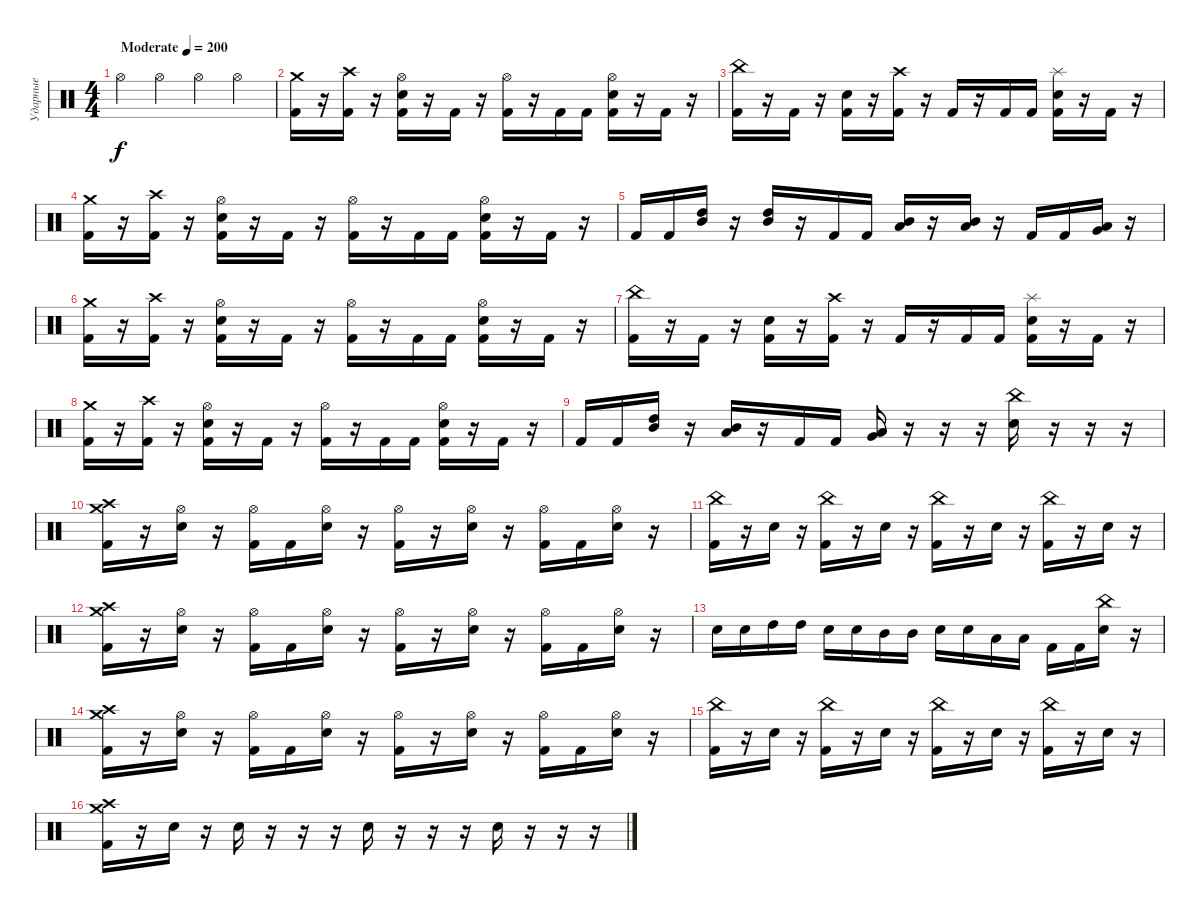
\track ("Ударные" "Ударные") {instrument percussion}
\staff {score}
\articulation defaults
\ts (4 4)
\tempo (200 "Moderate")
\clef neutral
\ks c "Hi-Hat (open)".4{dy f} "Hi-Hat (open)".4 "Hi-Hat (open)".4 "Hi-Hat (open)".4
|
("Kick (hit) 2" "Crash medium (hit)").16 r.16 ("Kick (hit) 2" "Crash high (hit)").16 r.16 ("Kick (hit) 2" "Electric Snare (hit)" "Hi-Hat (open)").16 r.16 "Kick (hit) 2".16 r.16 ("Kick (hit) 2" "Hi-Hat (open)").16 r.16 "Kick (hit) 2".16 "Kick (hit) 2".16 ("Kick (hit) 2" "Electric Snare (hit)" "Hi-Hat (open)").16 r.16 "Kick (hit) 2".16 r.16 |
("Kick (hit) 2" "China (hit)").16 r.16 "Kick (hit) 2".16 r.16 ("Kick (hit) 2" "Electric Snare (hit)").16 r.16 ("Kick (hit) 2" "Crash high (hit)").16 r.16 "Kick (hit) 2".16 r.16 "Kick (hit) 2".16 "Kick (hit) 2".16 ("Kick (hit) 2" "Electric Snare (hit)" "Splash (hit)").16 r.16 "Kick (hit) 2".16 r.16 |
("Kick (hit) 2" "Crash medium (hit)").16 r.16 ("Kick (hit) 2" "Crash high (hit)").16 r.16 ("Kick (hit) 2" "Electric Snare (hit)" "Hi-Hat (open)").16 r.16 "Kick (hit) 2".16 r.16 ("Kick (hit) 2" "Hi-Hat (open)").16 r.16 "Kick (hit) 2".16 "Kick (hit) 2".16 ("Kick (hit) 2" "Electric Snare (hit)" "Hi-Hat (open)").16 r.16 "Kick (hit) 2".16 r.16 |
"Kick (hit) 2".16 "Kick (hit) 2".16 ("Mid Tom (hit)" "High Tom (hit)").16 r.16 ("Mid Tom (hit)" "High Tom (hit)").16 r.16 "Kick (hit) 2".16 "Kick (hit) 2".16 ("Low Tom (hit)" "Mid Tom (hit)").16 r.16 ("Low Tom (hit)" "Mid Tom (hit)").16 r.16 "Kick (hit) 2".16 "Kick (hit) 2".16 ("Very Low Tom (hit)" "Low Tom (hit)").16 r.16 |
("Kick (hit) 2" "Crash medium (hit)").16 r.16 ("Kick (hit) 2" "Crash high (hit)").16 r.16 ("Kick (hit) 2" "Electric Snare (hit)" "Hi-Hat (open)").16 r.16 "Kick (hit) 2".16 r.16 ("Kick (hit) 2" "Hi-Hat (open)").16 r.16 "Kick (hit) 2".16 "Kick (hit) 2".16 ("Kick (hit) 2" "Electric Snare (hit)" "Hi-Hat (open)").16 r.16 "Kick (hit) 2".16 r.16 |
("Kick (hit) 2" "China (hit)").16 r.16 "Kick (hit) 2".16 r.16 ("Kick (hit) 2" "Electric Snare (hit)").16 r.16 ("Kick (hit) 2" "Crash high (hit)").16 r.16 "Kick (hit) 2".16 r.16 "Kick (hit) 2".16 "Kick (hit) 2".16 ("Kick (hit) 2" "Electric Snare (hit)" "Splash (hit)").16 r.16 "Kick (hit) 2".16 r.16 |
("Kick (hit) 2" "Crash medium (hit)").16 r.16 ("Kick (hit) 2" "Crash high (hit)").16 r.16 ("Kick (hit) 2" "Electric Snare (hit)" "Hi-Hat (open)").16 r.16 "Kick (hit) 2".16 r.16 ("Kick (hit) 2" "Hi-Hat (open)").16 r.16 "Kick (hit) 2".16 "Kick (hit) 2".16 ("Kick (hit) 2" "Electric Snare (hit)" "Hi-Hat (open)").16 r.16 "Kick (hit) 2".16 r.16 |
"Kick (hit) 2".16 "Kick (hit) 2".16 ("Mid Tom (hit)" "High Tom (hit)").16 r.16 ("Low Tom (hit)" "Mid Tom (hit)").16 r.16 "Kick (hit) 2".16 "Kick (hit) 2".16 ("Very Low Tom (hit)" "Low Tom (hit)").16 r.16 r.16 r.16 ("Electric Snare (hit)" "China (hit)").16 r.16 r.16 r.16 |
("Kick (hit) 2" "Crash high (hit)" "Crash medium (hit)").16 r.16 ("Electric Snare (hit)" "Hi-Hat (open)").16 r.16 ("Kick (hit) 2" "Hi-Hat (open)").16 "Kick (hit) 2".16 ("Electric Snare (hit)" "Hi-Hat (open)").16 r.16 ("Kick (hit) 2" "Hi-Hat (open)").16 r.16 ("Electric Snare (hit)" "Hi-Hat (open)").16 r.16 ("Kick (hit) 2" "Hi-Hat (open)").16 "Kick (hit) 2".16 ("Electric Snare (hit)" "Hi-Hat (open)").16 r.16 |
("Kick (hit) 2" "China (hit)").16 r.16 "Electric Snare (hit)".16 r.16 ("Kick (hit) 2" "China (hit)").16 r.16 "Electric Snare (hit)".16 r.16 ("Kick (hit) 2" "China (hit)").16 r.16 "Electric Snare (hit)".16 r.16 ("Kick (hit) 2" "China (hit)").16 r.16 "Electric Snare (hit)".16 r.16 |
("Kick (hit) 2" "Crash high (hit)" "Crash medium (hit)").16 r.16 ("Electric Snare (hit)" "Hi-Hat (open)").16 r.16 ("Kick (hit) 2" "Hi-Hat (open)").16 "Kick (hit) 2".16 ("Electric Snare (hit)" "Hi-Hat (open)").16 r.16 ("Kick (hit) 2" "Hi-Hat (open)").16 r.16 ("Electric Snare (hit)" "Hi-Hat (open)").16 r.16 ("Kick (hit) 2" "Hi-Hat (open)").16 "Kick (hit) 2".16 ("Electric Snare (hit)" "Hi-Hat (open)").16 r.16 |
"Electric Snare (hit)".16 "Electric Snare (hit)".16 "High Tom (hit)".16 "High Tom (hit)".16 "Electric Snare (hit)".16 "Electric Snare (hit)".16 "Mid Tom (hit)".16 "Mid Tom (hit)".16 "Electric Snare (hit)".16 "Electric Snare (hit)".16 "Low Tom (hit)".16 "Low Tom (hit)".16 "Kick (hit) 2".16 "Kick (hit) 2".16 ("Electric Snare (hit)" "China (hit)").16 r.16 |
("Kick (hit) 2" "Crash high (hit)" "Crash medium (hit)").16 r.16 ("Electric Snare (hit)" "Hi-Hat (open)").16 r.16 ("Kick (hit) 2" "Hi-Hat (open)").16 "Kick (hit) 2".16 ("Electric Snare (hit)" "Hi-Hat (open)").16 r.16 ("Kick (hit) 2" "Hi-Hat (open)").16 r.16 ("Electric Snare (hit)" "Hi-Hat (open)").16 r.16 ("Kick (hit) 2" "Hi-Hat (open)").16 "Kick (hit) 2".16 ("Electric Snare (hit)" "Hi-Hat (open)").16 r.16 |
("Kick (hit) 2" "China (hit)").16 r.16 "Electric Snare (hit)".16 r.16 ("Kick (hit) 2" "China (hit)").16 r.16 "Electric Snare (hit)".16 r.16 ("Kick (hit) 2" "China (hit)").16 r.16 "Electric Snare (hit)".16 r.16 ("Kick (hit) 2" "China (hit)").16 r.16 "Electric Snare (hit)".16 r.16 |
("Kick (hit) 2" "Crash high (hit)" "Crash medium (hit)").16 r.16 "Electric Snare (hit)".16 r.16 "Electric Snare (hit)".16 r.16 r.16 r.16 "Electric Snare (hit)".16 r.16 r.16 r.16 "Electric Snare (hit)".16 r.16 r.16 r.16
